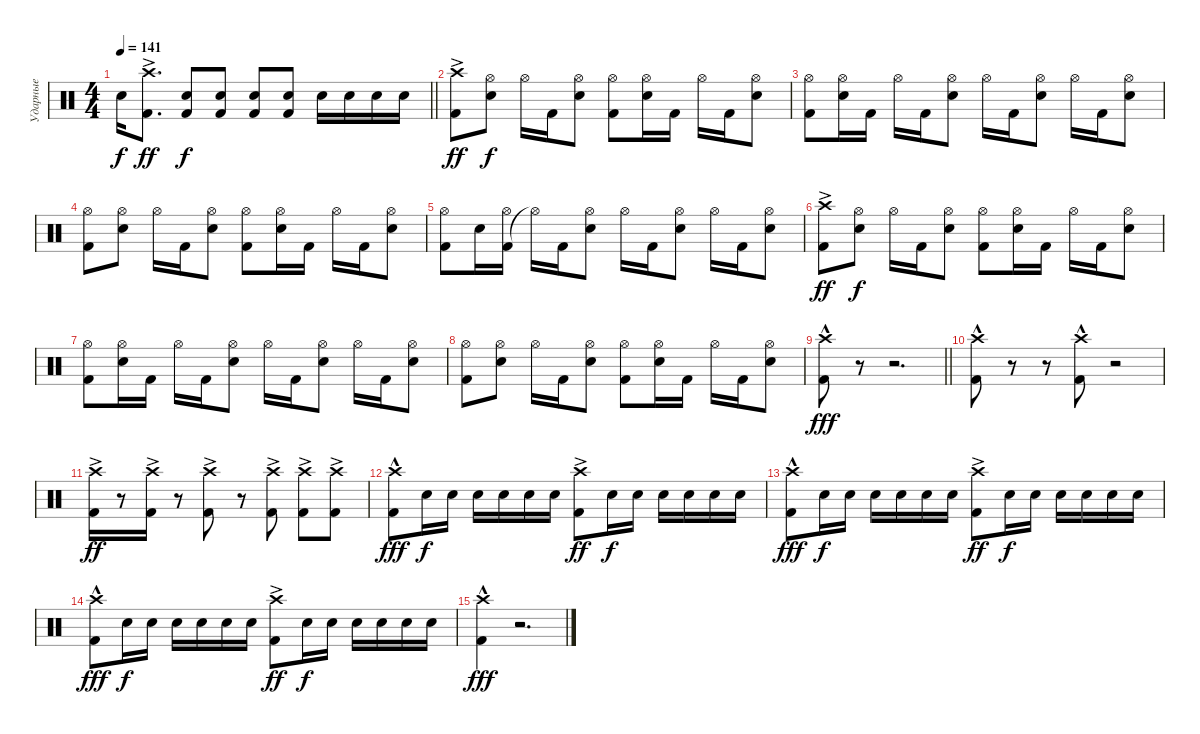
\track ("Ударные" "Ударные") {instrument percussion}
\staff
\articulation defaults
\ts (4 4)
\tempo 141
\clef neutral
\barLineRight lightlight
\ks c "Snare (hit) 2".16{dy f}
("Kick (hit) 2" "Crash high (hit)"{ac}).8{d dy ff} ("Kick (hit) 2" "Snare (hit) 2").8{dy f} ("Kick (hit) 2" "Snare (hit) 2").8 ("Kick (hit) 2" "Snare (hit) 2").8 ("Kick (hit) 2" "Snare (hit) 2").8 "Snare (hit) 2".16 "Snare (hit) 2".16 "Snare (hit) 2".16 "Snare (hit) 2".16 |
("Kick (hit) 2" "Crash high (hit)"{ac}).8{dy ff} ("Snare (hit) 2" "Hi-Hat (open)").8{dy f} "Hi-Hat (open)".16 "Kick (hit) 2".16 ("Snare (hit) 2" "Hi-Hat (open)").8 ("Kick (hit) 2" "Hi-Hat (open)").8 ("Snare (hit) 2" "Hi-Hat (open)").16 "Kick (hit) 2".16 "Hi-Hat (open)".16 "Kick (hit) 2".16 ("Snare (hit) 2" "Hi-Hat (open)").8 |
("Kick (hit) 2" "Hi-Hat (open)").8 ("Snare (hit) 2" "Hi-Hat (open)").16 "Kick (hit) 2".16 "Hi-Hat (open)".16 "Kick (hit) 2".16 ("Snare (hit) 2" "Hi-Hat (open)").8 "Hi-Hat (open)".16 "Kick (hit) 2".16 ("Snare (hit) 2" "Hi-Hat (open)").8 "Hi-Hat (open)".16 "Kick (hit) 2".16 ("Snare (hit) 2" "Hi-Hat (open)").8 |
("Kick (hit) 2" "Hi-Hat (open)").8 ("Snare (hit) 2" "Hi-Hat (open)").8 "Hi-Hat (open)".16 "Kick (hit) 2".16 ("Snare (hit) 2" "Hi-Hat (open)").8 ("Kick (hit) 2" "Hi-Hat (open)").8 ("Snare (hit) 2" "Hi-Hat (open)").16 "Kick (hit) 2".16 "Hi-Hat (open)".16 "Kick (hit) 2".16 ("Snare (hit) 2" "Hi-Hat (open)").8 |
("Kick (hit) 2" "Hi-Hat (open)").8 "Snare (hit) 2".16 ("Kick (hit) 2" "Hi-Hat (open)").16 "Hi-Hat (open)"{t}.16 "Kick (hit) 2".16 ("Snare (hit) 2" "Hi-Hat (open)").8 "Hi-Hat (open)".16 "Kick (hit) 2".16 ("Snare (hit) 2" "Hi-Hat (open)").8 "Hi-Hat (open)".16 "Kick (hit) 2".16 ("Snare (hit) 2" "Hi-Hat (open)").8 |
("Kick (hit) 2" "Crash high (hit)"{ac}).8{dy ff} ("Snare (hit) 2" "Hi-Hat (open)").8{dy f} "Hi-Hat (open)".16 "Kick (hit) 2".16 ("Snare (hit) 2" "Hi-Hat (open)").8 ("Kick (hit) 2" "Hi-Hat (open)").8 ("Snare (hit) 2" "Hi-Hat (open)").16 "Kick (hit) 2".16 "Hi-Hat (open)".16 "Kick (hit) 2".16 ("Snare (hit) 2" "Hi-Hat (open)").8 |
("Kick (hit) 2" "Hi-Hat (open)").8 ("Snare (hit) 2" "Hi-Hat (open)").16 "Kick (hit) 2".16 "Hi-Hat (open)".16 "Kick (hit) 2".16 ("Snare (hit) 2" "Hi-Hat (open)").8 "Hi-Hat (open)".16 "Kick (hit) 2".16 ("Snare (hit) 2" "Hi-Hat (open)").8 "Hi-Hat (open)".16 "Kick (hit) 2".16 ("Snare (hit) 2" "Hi-Hat (open)").8 |
("Kick (hit) 2" "Hi-Hat (open)").8 ("Snare (hit) 2" "Hi-Hat (open)").8 "Hi-Hat (open)".16 "Kick (hit) 2".16 ("Snare (hit) 2" "Hi-Hat (open)").8 ("Kick (hit) 2" "Hi-Hat (open)").8 ("Snare (hit) 2" "Hi-Hat (open)").16 "Kick (hit) 2".16 "Hi-Hat (open)".16 "Kick (hit) 2".16 ("Snare (hit) 2" "Hi-Hat (open)").8 |
\barLineRight lightlight
("Kick (hit) 2" "Crash high (hit)"{hac}).8{dy fff} r.8 r.2{d} |
("Kick (hit) 2" "Crash high (hit)"{hac}).8 r.8 r.8 ("Kick (hit) 2" "Crash high (hit)"{hac}).8 r.2 |
("Kick (hit) 2" "Crash high (hit)"{ac}).16{dy ff} r.8 ("Kick (hit) 2" "Crash high (hit)"{ac}).16 r.8 ("Kick (hit) 2" "Crash high (hit)"{ac}).8 r.8 ("Kick (hit) 2" "Crash high (hit)"{ac}).8 ("Kick (hit) 2" "Crash high (hit)"{ac}).8 ("Kick (hit) 2" "Crash high (hit)"{ac}).8 |
("Kick (hit) 2" "Crash high (hit)"{hac}).8{dy fff} "Snare (hit) 2".16{dy f} "Snare (hit) 2".16 "Snare (hit) 2".16 "Snare (hit) 2".16 "Snare (hit) 2".16 "Snare (hit) 2".16 ("Kick (hit) 2" "Crash high (hit)"{ac}).8{dy ff} "Snare (hit) 2".16{dy f} "Snare (hit) 2".16 "Snare (hit) 2".16 "Snare (hit) 2".16 "Snare (hit) 2".16 "Snare (hit) 2".16 |
("Kick (hit) 2" "Crash high (hit)"{hac}).8{dy fff} "Snare (hit) 2".16{dy f} "Snare (hit) 2".16 "Snare (hit) 2".16 "Snare (hit) 2".16 "Snare (hit) 2".16 "Snare (hit) 2".16 ("Kick (hit) 2" "Crash high (hit)"{ac}).8{dy ff} "Snare (hit) 2".16{dy f} "Snare (hit) 2".16 "Snare (hit) 2".16 "Snare (hit) 2".16 "Snare (hit) 2".16 "Snare (hit) 2".16 |
("Kick (hit) 2" "Crash high (hit)"{hac}).8{dy fff} "Snare (hit) 2".16{dy f} "Snare (hit) 2".16 "Snare (hit) 2".16 "Snare (hit) 2".16 "Snare (hit) 2".16 "Snare (hit) 2".16 ("Kick (hit) 2" "Crash high (hit)"{ac}).8{dy ff} "Snare (hit) 2".16{dy f} "Snare (hit) 2".16 "Snare (hit) 2".16 "Snare (hit) 2".16 "Snare (hit) 2".16 "Snare (hit) 2".16 |
("Kick (hit) 2" "Crash high (hit)"{hac}).4{dy fff} r.2{d}
